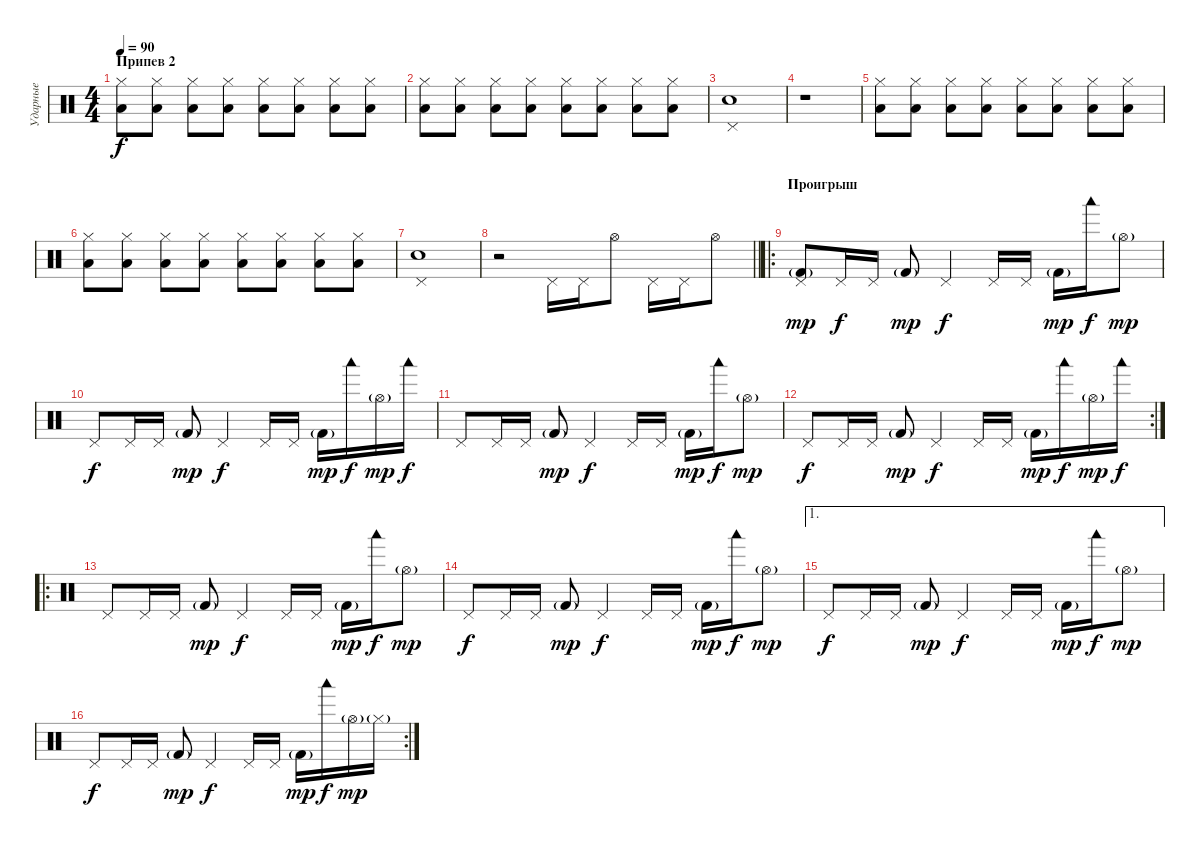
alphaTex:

\track ("Ударные" "Ударные") {instrument percussion}
\staff {score}
\articulation defaults
\ts (4 4)
\section ("" "Припев 2")
\tempo 90
\clef neutral
\ks c
("Low Floor Tom (hit)" "Hi-Hat (closed)").8{dy f} ("Low Floor Tom (hit)" "Hi-Hat (closed)").8 ("Low Floor Tom (hit)" "Hi-Hat (closed)").8 ("Low Floor Tom (hit)" "Hi-Hat (closed)").8 ("Low Floor Tom (hit)" "Hi-Hat (closed)").8 ("Low Floor Tom (hit)" "Hi-Hat (closed)").8 ("Low Floor Tom (hit)" "Hi-Hat (closed)").8 ("Low Floor Tom (hit)" "Hi-Hat (closed)").8 |
("Low Floor Tom (hit)" "Hi-Hat (closed)").8 ("Low Floor Tom (hit)" "Hi-Hat (closed)").8 ("Low Floor Tom (hit)" "Hi-Hat (closed)").8 ("Low Floor Tom (hit)" "Hi-Hat (closed)").8 ("Low Floor Tom (hit)" "Hi-Hat (closed)").8 ("Low Floor Tom (hit)" "Hi-Hat (closed)").8 ("Low Floor Tom (hit)" "Hi-Hat (closed)").8 ("Low Floor Tom (hit)" "Hi-Hat (closed)").8 |
("Electric Snare (hit)" "Pedal Hi-Hat (hit)").1 |
r.1 |
("Low Floor Tom (hit)" "Hi-Hat (closed)").8 ("Low Floor Tom (hit)" "Hi-Hat (closed)").8 ("Low Floor Tom (hit)" "Hi-Hat (closed)").8 ("Low Floor Tom (hit)" "Hi-Hat (closed)").8 ("Low Floor Tom (hit)" "Hi-Hat (closed)").8 ("Low Floor Tom (hit)" "Hi-Hat (closed)").8 ("Low Floor Tom (hit)" "Hi-Hat (closed)").8 ("Low Floor Tom (hit)" "Hi-Hat (closed)").8 |
("Low Floor Tom (hit)" "Hi-Hat (closed)").8 ("Low Floor Tom (hit)" "Hi-Hat (closed)").8 ("Low Floor Tom (hit)" "Hi-Hat (closed)").8 ("Low Floor Tom (hit)" "Hi-Hat (closed)").8 ("Low Floor Tom (hit)" "Hi-Hat (closed)").8 ("Low Floor Tom (hit)" "Hi-Hat (closed)").8 ("Low Floor Tom (hit)" "Hi-Hat (closed)").8 ("Low Floor Tom (hit)" "Hi-Hat (closed)").8 |
("Electric Snare (hit)" "Pedal Hi-Hat (hit)").1 |
\barLineRight lightlight
r.2 "Pedal Hi-Hat (hit)".16 "Pedal Hi-Hat (hit)".16 "Hi-Hat (open)".8 "Pedal Hi-Hat (hit)".16 "Pedal Hi-Hat (hit)".16 "Hi-Hat (open)".8 |
\ro
\section ("" "Проигрыш")
("Pedal Hi-Hat (hit)" "Kick (hit) 2"{g}).8{dy mp} "Pedal Hi-Hat (hit)".16{dy f} "Pedal Hi-Hat (hit)".16 "Kick (hit) 2"{g}.8{dy mp} "Pedal Hi-Hat (hit)".4{dy f} "Pedal Hi-Hat (hit)".16 "Pedal Hi-Hat (hit)".16 "Kick (hit) 2"{g}.16{dy mp} "Woodblock low (hit)".16{dy f} "Hi-Hat (open)"{g}.8{dy mp} |
"Pedal Hi-Hat (hit)".8{dy f} "Pedal Hi-Hat (hit)".16 "Pedal Hi-Hat (hit)".16 "Kick (hit) 2"{g}.8{dy mp} "Pedal Hi-Hat (hit)".4{dy f} "Pedal Hi-Hat (hit)".16 "Pedal Hi-Hat (hit)".16 "Kick (hit) 2"{g}.16{dy mp} "Woodblock low (hit)".16{dy f} "Hi-Hat (open)"{g}.16{dy mp} "Woodblock low (hit)".16{dy f} |
"Pedal Hi-Hat (hit)".8 "Pedal Hi-Hat (hit)".16 "Pedal Hi-Hat (hit)".16 "Kick (hit) 2"{g}.8{dy mp} "Pedal Hi-Hat (hit)".4{dy f} "Pedal Hi-Hat (hit)".16 "Pedal Hi-Hat (hit)".16 "Kick (hit) 2"{g}.16{dy mp} "Woodblock low (hit)".16{dy f} "Hi-Hat (open)"{g}.8{dy mp} |
\rc 2 "Pedal Hi-Hat (hit)".8{dy f} "Pedal Hi-Hat (hit)".16 "Pedal Hi-Hat (hit)".16 "Kick (hit) 2"{g}.8{dy mp} "Pedal Hi-Hat (hit)".4{dy f} "Pedal Hi-Hat (hit)".16 "Pedal Hi-Hat (hit)".16 "Kick (hit) 2"{g}.16{dy mp} "Woodblock low (hit)".16{dy f} "Hi-Hat (open)"{g}.16{dy mp} "Woodblock low (hit)".16{dy f}
|
\ro "Pedal Hi-Hat (hit)".8 "Pedal Hi-Hat (hit)".16 "Pedal Hi-Hat (hit)".16 "Kick (hit) 2"{g}.8{dy mp} "Pedal Hi-Hat (hit)".4{dy f} "Pedal Hi-Hat (hit)".16 "Pedal Hi-Hat (hit)".16 "Kick (hit) 2"{g}.16{dy mp} "Woodblock low (hit)".16{dy f} "Hi-Hat (open)"{g}.8{dy mp}
|
"Pedal Hi-Hat (hit)".8{dy f} "Pedal Hi-Hat (hit)".16 "Pedal Hi-Hat (hit)".16 "Kick (hit) 2"{g}.8{dy mp} "Pedal Hi-Hat (hit)".4{dy f} "Pedal Hi-Hat (hit)".16 "Pedal Hi-Hat (hit)".16 "Kick (hit) 2"{g}.16{dy mp} "Woodblock low (hit)".16{dy f} "Hi-Hat (open)"{g}.8{dy mp} |
\ae 1 "Pedal Hi-Hat (hit)".8{dy f} "Pedal Hi-Hat (hit)".16 "Pedal Hi-Hat (hit)".16 "Kick (hit) 2"{g}.8{dy mp} "Pedal Hi-Hat (hit)".4{dy f} "Pedal Hi-Hat (hit)".16 "Pedal Hi-Hat (hit)".16 "Kick (hit) 2"{g}.16{dy mp} "Woodblock low (hit)".16{dy f} "Hi-Hat (open)"{g}.8{dy mp}
|
\rc 2 "Pedal Hi-Hat (hit)".8{dy f} "Pedal Hi-Hat (hit)".16 "Pedal Hi-Hat (hit)".16 "Kick (hit) 2"{g}.8{dy mp} "Pedal Hi-Hat (hit)".4{dy f} "Pedal Hi-Hat (hit)".16 "Pedal Hi-Hat (hit)".16 "Kick (hit) 2"{g}.16{dy mp} "Woodblock low (hit)".16{dy f} "Hi-Hat (open)"{g}.16{dy mp} "Hi-Hat (closed)"{g}.16
